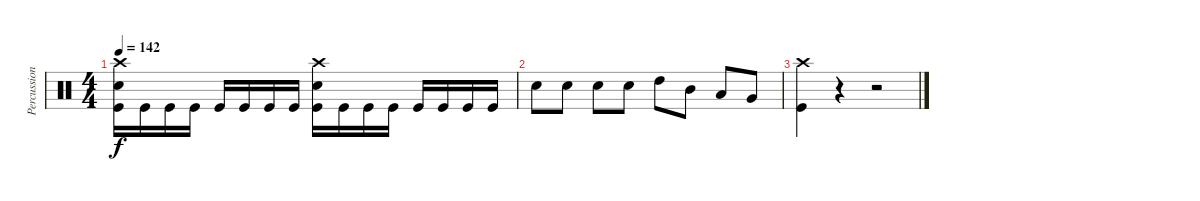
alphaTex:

\track ("Percussion" "Percussion") {instrument percussion}
\staff {score}
\articulation defaults
\ts (4 4)
\tempo 142
\clef neutral
\ks c
("Crash high (hit)" "Snare (hit) 2" "Kick (hit)").16{dy f} "Kick (hit)".16 "Kick (hit)".16 "Kick (hit)".16 "Kick (hit)".16 "Kick (hit)".16 "Kick (hit)".16 "Kick (hit)".16 ("Crash high (hit)" "Snare (hit) 2" "Kick (hit)").16 "Kick (hit)".16 "Kick (hit)".16 "Kick (hit)".16 "Kick (hit)".16 "Kick (hit)".16 "Kick (hit)".16 "Kick (hit)".16 |
"Snare (hit) 2".8 "Snare (hit) 2".8 "Snare (hit) 2".8 "Snare (hit) 2".8 "High Tom (hit)".8 "Mid Tom (hit)".8 "Low Tom (hit)".8 "Very Low Tom (hit)".8 |
("Crash high (hit)" "Kick (hit)").4 r.4 r.2
